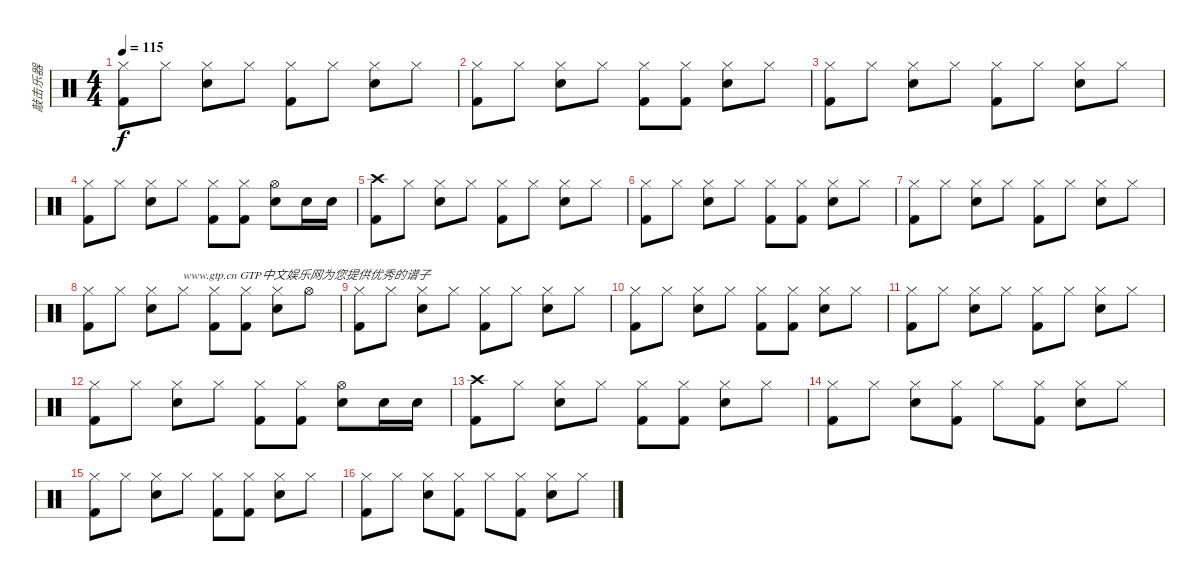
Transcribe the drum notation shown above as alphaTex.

\track ("敲击乐器" "敲击乐器") {instrument percussion}
\staff {score}
\articulation defaults
\ts (4 4)
\tempo 115
\clef neutral
\ks c
("Hi-Hat (closed)" "Kick (hit) 2").8{dy f} "Hi-Hat (closed)".8 ("Hi-Hat (closed)" "Electric Snare (hit)").8 "Hi-Hat (closed)".8 ("Hi-Hat (closed)" "Kick (hit) 2").8 "Hi-Hat (closed)".8 ("Hi-Hat (closed)" "Electric Snare (hit)").8 "Hi-Hat (closed)".8 |
("Hi-Hat (closed)" "Kick (hit) 2").8 "Hi-Hat (closed)".8 ("Hi-Hat (closed)" "Electric Snare (hit)").8 "Hi-Hat (closed)".8 ("Hi-Hat (closed)" "Kick (hit) 2").8 ("Hi-Hat (closed)" "Kick (hit) 2").8 ("Hi-Hat (closed)" "Electric Snare (hit)").8 "Hi-Hat (closed)".8 |
("Hi-Hat (closed)" "Kick (hit) 2").8 "Hi-Hat (closed)".8 ("Hi-Hat (closed)" "Electric Snare (hit)").8 "Hi-Hat (closed)".8 ("Hi-Hat (closed)" "Kick (hit) 2").8 "Hi-Hat (closed)".8 ("Hi-Hat (closed)" "Electric Snare (hit)").8 "Hi-Hat (closed)".8 |
("Hi-Hat (closed)" "Kick (hit) 2").8 "Hi-Hat (closed)".8 ("Hi-Hat (closed)" "Electric Snare (hit)").8 "Hi-Hat (closed)".8 ("Hi-Hat (closed)" "Kick (hit) 2").8 ("Hi-Hat (closed)" "Kick (hit) 2").8 ("Hi-Hat (open)" "Electric Snare (hit)").8 "Electric Snare (hit)".16 "Electric Snare (hit)".16 |
("Crash high (hit)" "Kick (hit) 2").8 "Hi-Hat (closed)".8 ("Hi-Hat (closed)" "Electric Snare (hit)").8 "Hi-Hat (closed)".8 ("Hi-Hat (closed)" "Kick (hit) 2").8 "Hi-Hat (closed)".8 ("Hi-Hat (closed)" "Electric Snare (hit)").8 "Hi-Hat (closed)".8 |
("Hi-Hat (closed)" "Kick (hit) 2").8 "Hi-Hat (closed)".8 ("Hi-Hat (closed)" "Electric Snare (hit)").8 "Hi-Hat (closed)".8 ("Hi-Hat (closed)" "Kick (hit) 2").8 ("Hi-Hat (closed)" "Kick (hit) 2").8 ("Hi-Hat (closed)" "Electric Snare (hit)").8 "Hi-Hat (closed)".8 |
("Hi-Hat (closed)" "Kick (hit) 2").8 "Hi-Hat (closed)".8 ("Hi-Hat (closed)" "Electric Snare (hit)").8 "Hi-Hat (closed)".8 ("Hi-Hat (closed)" "Kick (hit) 2").8 "Hi-Hat (closed)".8 ("Hi-Hat (closed)" "Electric Snare (hit)").8 "Hi-Hat (closed)".8 |
("Hi-Hat (closed)" "Kick (hit) 2").8 "Hi-Hat (closed)".8 ("Hi-Hat (closed)" "Electric Snare (hit)").8 "Hi-Hat (closed)".8{txt "www.gtp.cn GTP中文娱乐网为您提供优秀的谱子"} ("Hi-Hat (closed)" "Kick (hit) 2").8 ("Hi-Hat (closed)" "Kick (hit) 2").8 ("Hi-Hat (closed)" "Electric Snare (hit)").8 "Hi-Hat (open)".8 |
("Hi-Hat (closed)" "Kick (hit) 2").8 "Hi-Hat (closed)".8 ("Hi-Hat (closed)" "Electric Snare (hit)").8 "Hi-Hat (closed)".8 ("Hi-Hat (closed)" "Kick (hit) 2").8 "Hi-Hat (closed)".8 ("Hi-Hat (closed)" "Electric Snare (hit)").8 "Hi-Hat (closed)".8 |
("Hi-Hat (closed)" "Kick (hit) 2").8 "Hi-Hat (closed)".8 ("Hi-Hat (closed)" "Electric Snare (hit)").8 "Hi-Hat (closed)".8 ("Hi-Hat (closed)" "Kick (hit) 2").8 ("Hi-Hat (closed)" "Kick (hit) 2").8 ("Hi-Hat (closed)" "Electric Snare (hit)").8 "Hi-Hat (closed)".8 |
("Hi-Hat (closed)" "Kick (hit) 2").8 "Hi-Hat (closed)".8 ("Hi-Hat (closed)" "Electric Snare (hit)").8 "Hi-Hat (closed)".8 ("Hi-Hat (closed)" "Kick (hit) 2").8 "Hi-Hat (closed)".8 ("Hi-Hat (closed)" "Electric Snare (hit)").8 "Hi-Hat (closed)".8 |
("Hi-Hat (closed)" "Kick (hit) 2").8 "Hi-Hat (closed)".8 ("Hi-Hat (closed)" "Electric Snare (hit)").8 "Hi-Hat (closed)".8 ("Hi-Hat (closed)" "Kick (hit) 2").8 ("Hi-Hat (closed)" "Kick (hit) 2").8 ("Hi-Hat (open)" "Electric Snare (hit)").8 "Electric Snare (hit)".16 "Electric Snare (hit)".16 |
("Crash high (hit)" "Kick (hit) 2").8 "Hi-Hat (closed)".8 ("Hi-Hat (closed)" "Electric Snare (hit)").8 "Hi-Hat (closed)".8 ("Hi-Hat (closed)" "Kick (hit) 2").8 ("Hi-Hat (closed)" "Kick (hit) 2").8 ("Hi-Hat (closed)" "Electric Snare (hit)").8 "Hi-Hat (closed)".8 |
("Hi-Hat (closed)" "Kick (hit) 2").8 "Hi-Hat (closed)".8 ("Electric Snare (hit)" "Hi-Hat (closed)").8 ("Kick (hit) 2" "Hi-Hat (closed)").8 "Hi-Hat (closed)".8 ("Kick (hit) 2" "Hi-Hat (closed)").8 ("Electric Snare (hit)" "Hi-Hat (closed)").8 "Hi-Hat (closed)".8 |
("Hi-Hat (closed)" "Kick (hit) 2").8 "Hi-Hat (closed)".8 ("Hi-Hat (closed)" "Electric Snare (hit)").8 "Hi-Hat (closed)".8 ("Hi-Hat (closed)" "Kick (hit) 2").8 ("Hi-Hat (closed)" "Kick (hit) 2").8 ("Hi-Hat (closed)" "Electric Snare (hit)").8 "Hi-Hat (closed)".8 |
("Hi-Hat (closed)" "Kick (hit) 2").8 "Hi-Hat (closed)".8 ("Electric Snare (hit)" "Hi-Hat (closed)").8 ("Kick (hit) 2" "Hi-Hat (closed)").8 "Hi-Hat (closed)".8 ("Kick (hit) 2" "Hi-Hat (closed)").8 ("Electric Snare (hit)" "Hi-Hat (closed)").8 "Hi-Hat (closed)".8
